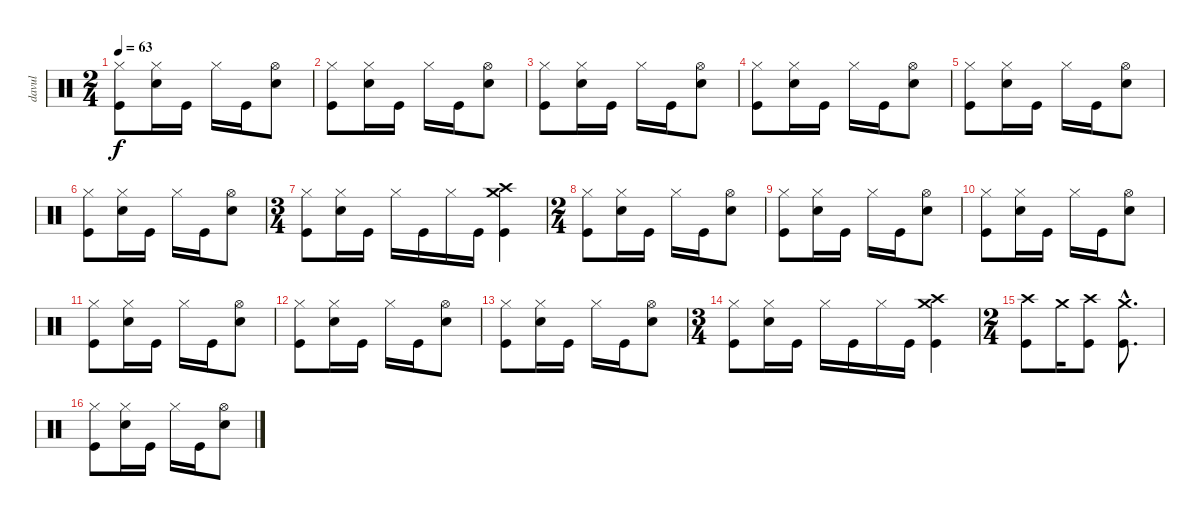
\track ("davul" "davul") {instrument percussion}
\staff {score}
\articulation defaults
\ts (2 4)
\tempo 63
\clef neutral
\ks c
("Hi-Hat (closed)" "Kick (hit)").8{dy f} ("Hi-Hat (closed)" "Snare (hit) 2").16 "Kick (hit)".16 "Hi-Hat (closed)".16 "Kick (hit)".16 ("Hi-Hat (open)" "Snare (hit) 2").8 |
("Hi-Hat (closed)" "Kick (hit)").8 ("Hi-Hat (closed)" "Snare (hit) 2").16 "Kick (hit)".16 "Hi-Hat (closed)".16 "Kick (hit)".16 ("Hi-Hat (open)" "Snare (hit) 2").8 |
("Hi-Hat (closed)" "Kick (hit)").8 ("Hi-Hat (closed)" "Snare (hit) 2").16 "Kick (hit)".16 "Hi-Hat (closed)".16 "Kick (hit)".16 ("Hi-Hat (open)" "Snare (hit) 2").8 |
("Hi-Hat (closed)" "Kick (hit)").8 ("Hi-Hat (closed)" "Snare (hit) 2").16 "Kick (hit)".16 "Hi-Hat (closed)".16 "Kick (hit)".16 ("Hi-Hat (open)" "Snare (hit) 2").8 |
("Hi-Hat (closed)" "Kick (hit)").8 ("Hi-Hat (closed)" "Snare (hit) 2").16 "Kick (hit)".16 "Hi-Hat (closed)".16 "Kick (hit)".16 ("Hi-Hat (open)" "Snare (hit) 2").8 |
("Hi-Hat (closed)" "Kick (hit)").8 ("Hi-Hat (closed)" "Snare (hit) 2").16 "Kick (hit)".16 "Hi-Hat (closed)".16 "Kick (hit)".16 ("Hi-Hat (open)" "Snare (hit) 2").8 |
\ts (3 4)
("Hi-Hat (closed)" "Kick (hit)").8 ("Hi-Hat (closed)" "Snare (hit) 2").16 "Kick (hit)".16 "Hi-Hat (closed)".16 "Kick (hit)".16 "Hi-Hat (closed)".16 "Kick (hit)".16 ("Crash medium (hit)" "Crash high (hit)" "Kick (hit)").4 |
\ts (2 4)
("Hi-Hat (closed)" "Kick (hit)").8 ("Hi-Hat (closed)" "Snare (hit) 2").16 "Kick (hit)".16 "Hi-Hat (closed)".16 "Kick (hit)".16 ("Hi-Hat (open)" "Snare (hit) 2").8 |
("Hi-Hat (closed)" "Kick (hit)").8 ("Hi-Hat (closed)" "Snare (hit) 2").16 "Kick (hit)".16 "Hi-Hat (closed)".16 "Kick (hit)".16 ("Hi-Hat (open)" "Snare (hit) 2").8 |
("Hi-Hat (closed)" "Kick (hit)").8 ("Hi-Hat (closed)" "Snare (hit) 2").16 "Kick (hit)".16 "Hi-Hat (closed)".16 "Kick (hit)".16 ("Hi-Hat (open)" "Snare (hit) 2").8 |
("Hi-Hat (closed)" "Kick (hit)").8 ("Hi-Hat (closed)" "Snare (hit) 2").16 "Kick (hit)".16 "Hi-Hat (closed)".16 "Kick (hit)".16 ("Hi-Hat (open)" "Snare (hit) 2").8 |
("Hi-Hat (closed)" "Kick (hit)").8 ("Hi-Hat (closed)" "Snare (hit) 2").16 "Kick (hit)".16 "Hi-Hat (closed)".16 "Kick (hit)".16 ("Hi-Hat (open)" "Snare (hit) 2").8 |
("Hi-Hat (closed)" "Kick (hit)").8 ("Hi-Hat (closed)" "Snare (hit) 2").16 "Kick (hit)".16 "Hi-Hat (closed)".16 "Kick (hit)".16 ("Hi-Hat (open)" "Snare (hit) 2").8 |
\ts (3 4)
("Hi-Hat (closed)" "Kick (hit)").8 ("Hi-Hat (closed)" "Snare (hit) 2").16 "Kick (hit)".16 "Hi-Hat (closed)".16 "Kick (hit)".16 "Hi-Hat (closed)".16 "Kick (hit)".16 ("Crash medium (hit)" "Crash high (hit)" "Kick (hit)").4 |
\ts (2 4)
("Crash high (hit)" "Kick (hit)").8 "Crash medium (hit)".16 ("Crash high (hit)" "Kick (hit)").8 ("Crash medium (hit)"{hac} "Kick (hit)"{hac}).8{d} |
("Hi-Hat (closed)" "Kick (hit)").8 ("Hi-Hat (closed)" "Snare (hit) 2").16 "Kick (hit)".16 "Hi-Hat (closed)".16 "Kick (hit)".16 ("Hi-Hat (open)" "Snare (hit) 2").8
